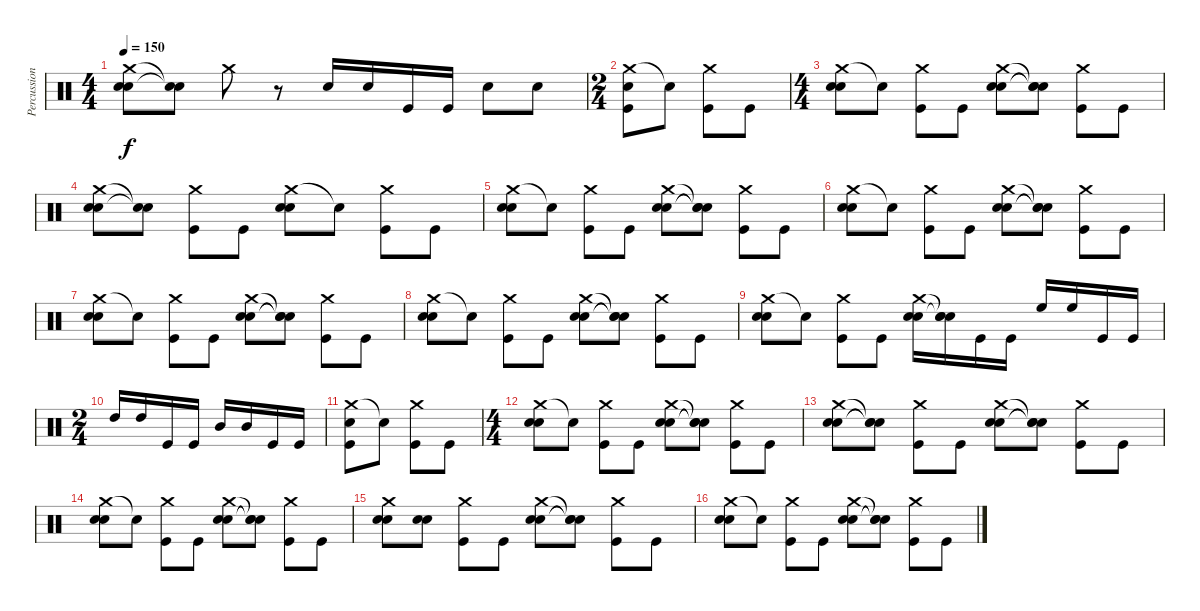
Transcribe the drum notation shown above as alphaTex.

\track ("Percussions" "Percussion") {instrument percussion}
\staff {score}
\articulation defaults
\ts (4 4)
\tempo 150
\clef neutral
\ks c
("Crash medium (hit)" "Electric Snare (hit)" "Electric Snare (hit)").8{dy f} ("Snare (hit)"{t} "Snare (hit)"{t}).8 "Crash medium (hit)".8 r.8 "Electric Snare (hit)".16 "Electric Snare (hit)".16 "Kick (hit)".16 "Kick (hit)".16 "Electric Snare (hit)".8 "Electric Snare (hit)".8 |
\ts (2 4)
("Crash medium (hit)" "Electric Snare (hit)" "Kick (hit)").8 "Snare (hit)"{t}.8 ("Crash medium (hit)" "Kick (hit)").8 "Kick (hit)".8 |
\ts (4 4)
("Crash medium (hit)" "Electric Snare (hit)" "Electric Snare (hit)").8 "Snare (hit)"{t}.8 ("Crash medium (hit)" "Kick (hit)").8 "Kick (hit)".8 ("Crash medium (hit)" "Electric Snare (hit)" "Electric Snare (hit)").8 ("Snare (hit)"{t} "Snare (hit)"{t} "Snare (hit)"{t}).8 ("Crash medium (hit)" "Kick (hit)").8 "Kick (hit)".8 |
("Crash medium (hit)" "Electric Snare (hit)" "Electric Snare (hit)").8 ("Snare (hit)"{t} "Snare (hit)"{t}).8 ("Crash medium (hit)" "Kick (hit)").8 "Kick (hit)".8 ("Crash medium (hit)" "Electric Snare (hit)" "Electric Snare (hit)").8 "Snare (hit)"{t}.8 ("Crash medium (hit)" "Kick (hit)").8 "Kick (hit)".8 |
("Crash medium (hit)" "Electric Snare (hit)" "Electric Snare (hit)").8 "Snare (hit)"{t}.8 ("Crash medium (hit)" "Kick (hit)").8 "Kick (hit)".8 ("Crash medium (hit)" "Electric Snare (hit)" "Electric Snare (hit)").8 ("Snare (hit)"{t} "Snare (hit)"{t} "Snare (hit)"{t}).8 ("Crash medium (hit)" "Kick (hit)").8 "Kick (hit)".8 |
("Crash medium (hit)" "Electric Snare (hit)" "Electric Snare (hit)").8 "Snare (hit)"{t}.8 ("Crash medium (hit)" "Kick (hit)").8 "Kick (hit)".8 ("Crash medium (hit)" "Electric Snare (hit)" "Electric Snare (hit)").8 ("Snare (hit)"{t} "Snare (hit)"{t} "Snare (hit)"{t}).8 ("Crash medium (hit)" "Kick (hit)").8 "Kick (hit)".8 |
("Crash medium (hit)" "Electric Snare (hit)" "Electric Snare (hit)").8 "Snare (hit)"{t}.8 ("Crash medium (hit)" "Kick (hit)").8 "Kick (hit)".8 ("Crash medium (hit)" "Electric Snare (hit)" "Electric Snare (hit)").8 ("Snare (hit)"{t} "Snare (hit)"{t} "Snare (hit)"{t}).8 ("Crash medium (hit)" "Kick (hit)").8 "Kick (hit)".8 |
("Crash medium (hit)" "Electric Snare (hit)" "Electric Snare (hit)").8 "Snare (hit)"{t}.8 ("Crash medium (hit)" "Kick (hit)").8 "Kick (hit)".8 ("Crash medium (hit)" "Electric Snare (hit)" "Electric Snare (hit)").8 ("Snare (hit)"{t} "Snare (hit)"{t} "Snare (hit)"{t}).8 ("Crash medium (hit)" "Kick (hit)").8 "Kick (hit)".8 |
("Crash medium (hit)" "Electric Snare (hit)" "Electric Snare (hit)").8 "Snare (hit)"{t}.8 ("Crash medium (hit)" "Kick (hit)").8 "Kick (hit)".8 ("Crash medium (hit)" "Electric Snare (hit)" "Electric Snare (hit)").16 ("Snare (hit)"{t} "Snare (hit)"{t} "Electric Snare (hit)").16 "Kick (hit)".16{volume 16} "Kick (hit)".16 "High Floor Tom (hit)".16{volume 12} "High Floor Tom (hit)".16 "Kick (hit)".16{volume 16} "Kick (hit)".16 |
\ts (2 4)
"High Tom (hit)".16{volume 12} "High Tom (hit)".16 "Kick (hit)".16{volume 16} "Kick (hit)".16 "Mid Tom (hit)".16{volume 12} "Mid Tom (hit)".16 "Kick (hit)".16{volume 16} "Kick (hit)".16 |
("Crash medium (hit)" "Electric Snare (hit)" "Kick (hit)").8 "Snare (hit)"{t}.8 ("Crash medium (hit)" "Kick (hit)").8 "Kick (hit)".8 |
\ts (4 4)
("Crash medium (hit)" "Electric Snare (hit)" "Electric Snare (hit)").8 "Snare (hit)"{t}.8 ("Crash medium (hit)" "Kick (hit)").8 "Kick (hit)".8 ("Crash medium (hit)" "Electric Snare (hit)" "Electric Snare (hit)").8 ("Snare (hit)"{t} "Snare (hit)"{t} "Snare (hit)"{t}).8 ("Crash medium (hit)" "Kick (hit)").8 "Kick (hit)".8 |
("Crash medium (hit)" "Electric Snare (hit)" "Electric Snare (hit)").8 ("Snare (hit)"{t} "Electric Snare (hit)"{t} "Electric Snare (hit)"{t}).8 ("Crash medium (hit)" "Kick (hit)").8 "Kick (hit)".8 ("Crash medium (hit)" "Electric Snare (hit)" "Electric Snare (hit)").8 ("Snare (hit)"{t} "Electric Snare (hit)"{t} "Electric Snare (hit)"{t}).8 ("Crash medium (hit)" "Kick (hit)").8 "Kick (hit)".8 |
("Crash medium (hit)" "Electric Snare (hit)" "Electric Snare (hit)").8 "Snare (hit)"{t}.8 ("Crash medium (hit)" "Kick (hit)").8 "Kick (hit)".8 ("Crash medium (hit)" "Electric Snare (hit)" "Electric Snare (hit)").8 ("Snare (hit)"{t} "Snare (hit)"{t} "Snare (hit)"{t}).8 ("Crash medium (hit)" "Kick (hit)").8 "Kick (hit)".8 |
("Crash medium (hit)" "Electric Snare (hit)" "Electric Snare (hit)").8 ("Electric Snare (hit)" "Electric Snare (hit)").8 ("Crash medium (hit)" "Kick (hit)").8 "Kick (hit)".8 ("Crash medium (hit)" "Electric Snare (hit)" "Electric Snare (hit)").8 ("Snare (hit)"{t} "Snare (hit)"{t} "Electric Snare (hit)"{t}).8 ("Crash medium (hit)" "Kick (hit)").8 "Kick (hit)".8 |
("Crash medium (hit)" "Electric Snare (hit)" "Electric Snare (hit)").8 "Snare (hit)"{t}.8 ("Crash medium (hit)" "Kick (hit)").8 "Kick (hit)".8 ("Crash medium (hit)" "Electric Snare (hit)" "Electric Snare (hit)").8 ("Snare (hit)"{t} "Snare (hit)"{t} "Snare (hit)"{t}).8 ("Crash medium (hit)" "Kick (hit)").8 "Kick (hit)".8
